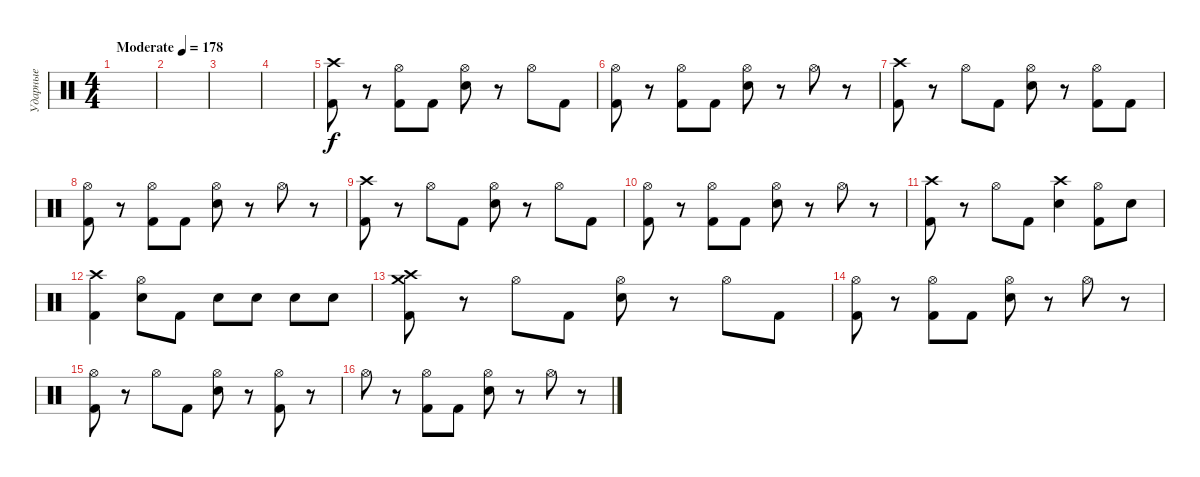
\track ("Ударные" "Ударные") {instrument percussion}
\staff {score}
\articulation defaults
\ts (4 4)
\tempo (178 "Moderate")
\clef neutral
\ks c
|
|
|
|
("Crash high (hit)" "Kick (hit) 2").8 r.8 ("Hi-Hat (open)" "Kick (hit) 2").8 "Kick (hit) 2".8 ("Hi-Hat (open)" "Snare (hit) 2").8 r.8 "Hi-Hat (open)".8 "Kick (hit) 2".8 |
("Hi-Hat (open)" "Kick (hit) 2").8 r.8 ("Hi-Hat (open)" "Kick (hit) 2").8 "Kick (hit) 2".8 ("Hi-Hat (open)" "Snare (hit) 2").8 r.8 "Hi-Hat (open)".8 r.8 |
("Crash high (hit)" "Kick (hit) 2").8 r.8 "Hi-Hat (open)".8 "Kick (hit) 2".8 ("Hi-Hat (open)" "Snare (hit) 2").8 r.8 ("Hi-Hat (open)" "Kick (hit) 2").8 "Kick (hit) 2".8 |
("Hi-Hat (open)" "Kick (hit) 2").8 r.8 ("Hi-Hat (open)" "Kick (hit) 2").8 "Kick (hit) 2".8 ("Hi-Hat (open)" "Snare (hit) 2").8 r.8 "Hi-Hat (open)".8 r.8 |
("Crash high (hit)" "Kick (hit) 2").8 r.8 "Hi-Hat (open)".8 "Kick (hit) 2".8 ("Hi-Hat (open)" "Snare (hit) 2").8 r.8 "Hi-Hat (open)".8 "Kick (hit) 2".8 |
("Hi-Hat (open)" "Kick (hit) 2").8 r.8 ("Hi-Hat (open)" "Kick (hit) 2").8 "Kick (hit) 2".8 ("Hi-Hat (open)" "Snare (hit) 2").8 r.8 "Hi-Hat (open)".8 r.8 |
("Crash high (hit)" "Kick (hit) 2").8 r.8 "Hi-Hat (open)".8 "Kick (hit) 2".8 ("Crash high (hit)" "Snare (hit) 2").4 ("Hi-Hat (open)" "Kick (hit) 2").8 "Snare (hit) 2".8 |
("Crash high (hit)" "Kick (hit) 2").4 ("Hi-Hat (open)" "Snare (hit) 2").8 "Kick (hit) 2".8 "Snare (hit) 2".8 "Snare (hit) 2".8 "Snare (hit) 2".8 "Snare (hit) 2".8 |
("Crash high (hit)" "Kick (hit) 2" "Crash medium (hit)").8 r.8 "Hi-Hat (open)".8 "Kick (hit) 2".8 ("Hi-Hat (open)" "Snare (hit) 2").8 r.8 "Hi-Hat (open)".8 "Kick (hit) 2".8 |
("Hi-Hat (open)" "Kick (hit) 2").8 r.8 ("Hi-Hat (open)" "Kick (hit) 2").8 "Kick (hit) 2".8 ("Hi-Hat (open)" "Snare (hit) 2").8 r.8 "Hi-Hat (open)".8 r.8 |
("Hi-Hat (open)" "Kick (hit) 2").8 r.8 "Hi-Hat (open)".8 "Kick (hit) 2".8 ("Hi-Hat (open)" "Snare (hit) 2").8 r.8 ("Hi-Hat (open)" "Kick (hit) 2").8 r.8 |
"Hi-Hat (open)".8 r.8 ("Hi-Hat (open)" "Kick (hit) 2").8 "Kick (hit) 2".8 ("Hi-Hat (open)" "Snare (hit) 2").8 r.8 "Hi-Hat (open)".8 r.8
